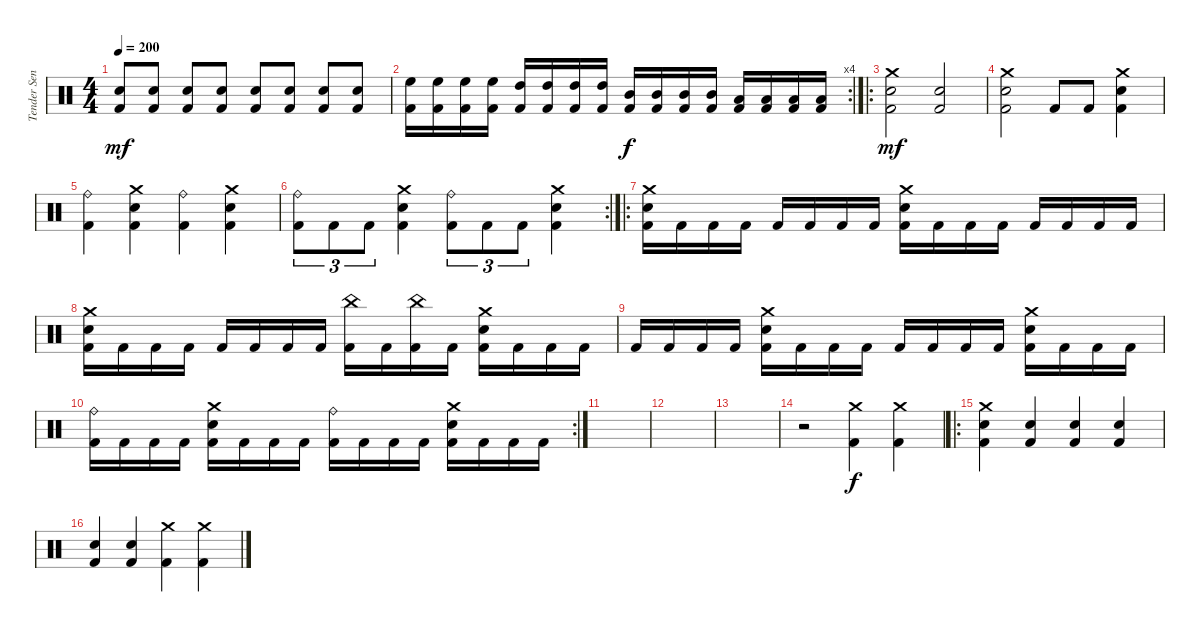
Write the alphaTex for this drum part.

\track ("Tender Sender" "Tender Sen") {instrument percussion}
\staff {score}
\articulation defaults
\ts (4 4)
\tempo 200
\clef neutral
\ks c
("Kick (hit) 2" "Snare (hit) 2").8{dy mf} ("Kick (hit) 2" "Snare (hit) 2").8 ("Kick (hit) 2" "Snare (hit) 2").8 ("Kick (hit) 2" "Snare (hit) 2").8 ("Kick (hit) 2" "Snare (hit) 2").8 ("Kick (hit) 2" "Snare (hit) 2").8 ("Kick (hit) 2" "Snare (hit) 2").8 ("Kick (hit) 2" "Snare (hit) 2").8 |
\rc 4
("Kick (hit) 2" "High Floor Tom (hit)").16 ("Kick (hit) 2" "High Floor Tom (hit)").16 ("Kick (hit) 2" "High Floor Tom (hit)").16 ("Kick (hit) 2" "High Floor Tom (hit)").16 ("Kick (hit) 2" "High Tom (hit)").16 ("Kick (hit) 2" "High Tom (hit)").16 ("Kick (hit) 2" "High Tom (hit)").16 ("Kick (hit) 2" "High Tom (hit)").16 ("Kick (hit) 2" "Mid Tom (hit)").16{dy f} ("Kick (hit) 2" "Mid Tom (hit)").16 ("Kick (hit) 2" "Mid Tom (hit)").16 ("Kick (hit) 2" "Mid Tom (hit)").16 ("Kick (hit) 2" "Low Tom (hit)").16 ("Kick (hit) 2" "Low Tom (hit)").16 ("Kick (hit) 2" "Low Tom (hit)").16 ("Kick (hit) 2" "Low Tom (hit)").16 |
\ro
("Kick (hit) 2" "Snare (hit) 2" "Crash medium (hit)").2{dy mf} ("Kick (hit) 2" "Snare (hit) 2").2 |
("Kick (hit) 2" "Snare (hit) 2" "Crash medium (hit)").2 "Kick (hit) 2".8 "Kick (hit) 2".8 ("Kick (hit) 2" "Snare (hit) 2" "Crash medium (hit)").4 |
("Kick (hit) 2" "Ride (bell)").4 ("Kick (hit) 2" "Snare (hit) 2" "Crash medium (hit)").4 ("Kick (hit) 2" "Ride (bell)").4 ("Kick (hit) 2" "Snare (hit) 2" "Crash medium (hit)").4 |
\rc 2
("Kick (hit) 2" "Ride (bell)").8{tu (3 2)} "Kick (hit) 2".8{tu (3 2)} "Kick (hit) 2".8{tu (3 2)} ("Kick (hit) 2" "Snare (hit) 2" "Crash medium (hit)").4 ("Kick (hit) 2" "Ride (bell)").8{tu (3 2)} "Kick (hit) 2".8{tu (3 2)} "Kick (hit) 2".8{tu (3 2)} ("Kick (hit) 2" "Snare (hit) 2" "Crash medium (hit)").4 |
\ro
("Kick (hit) 2" "Snare (hit) 2" "Crash medium (hit)").16 "Kick (hit) 2".16 "Kick (hit) 2".16 "Kick (hit) 2".16 "Kick (hit) 2".16 "Kick (hit) 2".16 "Kick (hit) 2".16 "Kick (hit) 2".16 ("Kick (hit) 2" "Snare (hit) 2" "Crash medium (hit)").16 "Kick (hit) 2".16 "Kick (hit) 2".16 "Kick (hit) 2".16 "Kick (hit) 2".16 "Kick (hit) 2".16 "Kick (hit) 2".16 "Kick (hit) 2".16 |
("Kick (hit) 2" "Snare (hit) 2" "Crash medium (hit)").16 "Kick (hit) 2".16 "Kick (hit) 2".16 "Kick (hit) 2".16 "Kick (hit) 2".16 "Kick (hit) 2".16 "Kick (hit) 2".16 "Kick (hit) 2".16 ("Kick (hit) 2" "China (hit)").16 "Kick (hit) 2".16 ("Kick (hit) 2" "China (hit)").16 "Kick (hit) 2".16 ("Kick (hit) 2" "Snare (hit) 2" "Crash medium (hit)").16 "Kick (hit) 2".16 "Kick (hit) 2".16 "Kick (hit) 2".16 |
"Kick (hit) 2".16 "Kick (hit) 2".16 "Kick (hit) 2".16 "Kick (hit) 2".16 ("Kick (hit) 2" "Snare (hit) 2" "Crash medium (hit)").16 "Kick (hit) 2".16 "Kick (hit) 2".16 "Kick (hit) 2".16 "Kick (hit) 2".16 "Kick (hit) 2".16 "Kick (hit) 2".16 "Kick (hit) 2".16 ("Kick (hit) 2" "Snare (hit) 2" "Crash medium (hit)").16 "Kick (hit) 2".16 "Kick (hit) 2".16 "Kick (hit) 2".16 |
\rc 2
("Kick (hit) 2" "Ride (bell)").16 "Kick (hit) 2".16 "Kick (hit) 2".16 "Kick (hit) 2".16 ("Kick (hit) 2" "Snare (hit) 2" "Crash medium (hit)").16 "Kick (hit) 2".16 "Kick (hit) 2".16 "Kick (hit) 2".16 ("Kick (hit) 2" "Ride (bell)").16 "Kick (hit) 2".16 "Kick (hit) 2".16 "Kick (hit) 2".16 ("Kick (hit) 2" "Snare (hit) 2" "Crash medium (hit)").16 "Kick (hit) 2".16 "Kick (hit) 2".16 "Kick (hit) 2".16 |
|
|
|
r.2 ("Kick (hit) 2" "Crash medium (hit)").4{dy f} ("Kick (hit) 2" "Crash medium (hit)").4 |
\ro
("Kick (hit) 2" "Snare (hit) 2" "Crash medium (hit)").4 ("Kick (hit) 2" "Snare (hit) 2").4 ("Kick (hit) 2" "Snare (hit) 2").4 ("Kick (hit) 2" "Snare (hit) 2").4 |
("Kick (hit) 2" "Snare (hit) 2").4 ("Kick (hit) 2" "Snare (hit) 2").4 ("Kick (hit) 2" "Crash medium (hit)").4 ("Kick (hit) 2" "Crash medium (hit)").4
